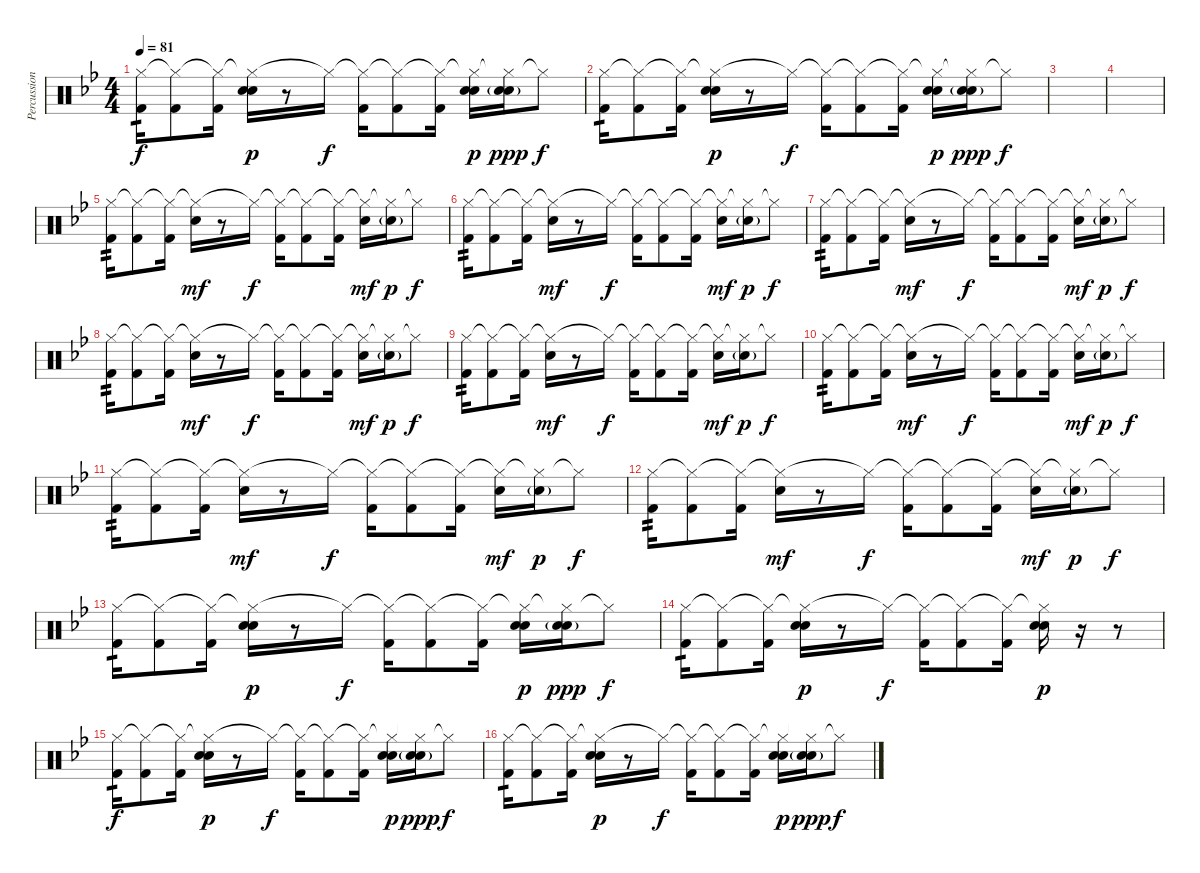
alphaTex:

\track ("Percussion" "Percussion") {instrument percussion}
\staff {score}
\articulation defaults
\ts (4 4)
\tempo 81
\clef neutral
\ks bb
("Hi-Hat (closed)" "Kick (hit) 2").16{tp 1 dy f} ("Hi-Hat (closed)"{t} "Kick (hit) 2").8 ("Hi-Hat (closed)"{t} "Kick (hit) 2").16 ("Hi-Hat (closed)"{t} "Hand Clap (hit)" "Electric Snare (hit)").16{dy p} r.8 "Hi-Hat (closed)"{t}.16{dy f} ("Hi-Hat (closed)"{t} "Kick (hit) 2").16 ("Hi-Hat (closed)"{t} "Kick (hit) 2").8 ("Hi-Hat (closed)"{t} "Kick (hit) 2").16 ("Hi-Hat (closed)"{t} "Hand Clap (hit)" "Electric Snare (hit)").16{dy p} ("Hi-Hat (closed)"{t} "Hand Clap (hit)"{g} "Electric Snare (hit)"{g}).16{dy ppp} "Hi-Hat (closed)"{t}.8{dy f} |
("Hi-Hat (closed)" "Kick (hit) 2").16{tp 1} ("Hi-Hat (closed)"{t} "Kick (hit) 2").8 ("Hi-Hat (closed)"{t} "Kick (hit) 2").16 ("Hi-Hat (closed)"{t} "Hand Clap (hit)" "Electric Snare (hit)").16{dy p} r.8 "Hi-Hat (closed)"{t}.16{dy f} ("Hi-Hat (closed)"{t} "Kick (hit) 2").16 ("Hi-Hat (closed)"{t} "Kick (hit) 2").8 ("Hi-Hat (closed)"{t} "Kick (hit) 2").16 ("Hi-Hat (closed)"{t} "Hand Clap (hit)" "Electric Snare (hit)").16{dy p} ("Hi-Hat (closed)"{t} "Hand Clap (hit)"{g} "Electric Snare (hit)"{g}).16{dy ppp} "Hi-Hat (closed)"{t}.8{dy f} |
|
|
("Hi-Hat (closed)" "Kick (hit) 2").16{tp 2} ("Hi-Hat (closed)"{t} "Kick (hit) 2").8 ("Hi-Hat (closed)"{t} "Kick (hit) 2").16 ("Hi-Hat (closed)"{t} "Snare (hit) 2").16{dy mf} r.8 "Hi-Hat (closed)"{t}.16{dy f} ("Hi-Hat (closed)"{t} "Kick (hit) 2").16 ("Hi-Hat (closed)"{t} "Kick (hit) 2").8 ("Hi-Hat (closed)"{t} "Kick (hit) 2").16 ("Hi-Hat (closed)"{t} "Snare (hit) 2").16{dy mf} ("Hi-Hat (closed)"{t} "Snare (hit) 2"{g}).16{dy p} "Hi-Hat (closed)"{t}.8{dy f} |
("Hi-Hat (closed)" "Kick (hit) 2").16{tp 2} ("Hi-Hat (closed)"{t} "Kick (hit) 2").8 ("Hi-Hat (closed)"{t} "Kick (hit) 2").16 ("Hi-Hat (closed)"{t} "Snare (hit) 2").16{dy mf} r.8 "Hi-Hat (closed)"{t}.16{dy f} ("Hi-Hat (closed)"{t} "Kick (hit) 2").16 ("Hi-Hat (closed)"{t} "Kick (hit) 2").8 ("Hi-Hat (closed)"{t} "Kick (hit) 2").16 ("Hi-Hat (closed)"{t} "Snare (hit) 2").16{dy mf} ("Hi-Hat (closed)"{t} "Snare (hit) 2"{g}).16{dy p} "Hi-Hat (closed)"{t}.8{dy f} |
("Hi-Hat (closed)" "Kick (hit) 2").16{tp 2} ("Hi-Hat (closed)"{t} "Kick (hit) 2").8 ("Hi-Hat (closed)"{t} "Kick (hit) 2").16 ("Hi-Hat (closed)"{t} "Snare (hit) 2").16{dy mf} r.8 "Hi-Hat (closed)"{t}.16{dy f} ("Hi-Hat (closed)"{t} "Kick (hit) 2").16 ("Hi-Hat (closed)"{t} "Kick (hit) 2").8 ("Hi-Hat (closed)"{t} "Kick (hit) 2").16 ("Hi-Hat (closed)"{t} "Snare (hit) 2").16{dy mf} ("Hi-Hat (closed)"{t} "Snare (hit) 2"{g}).16{dy p} "Hi-Hat (closed)"{t}.8{dy f} |
("Hi-Hat (closed)" "Kick (hit) 2").16{tp 2} ("Hi-Hat (closed)"{t} "Kick (hit) 2").8 ("Hi-Hat (closed)"{t} "Kick (hit) 2").16 ("Hi-Hat (closed)"{t} "Snare (hit) 2").16{dy mf} r.8 "Hi-Hat (closed)"{t}.16{dy f} ("Hi-Hat (closed)"{t} "Kick (hit) 2").16 ("Hi-Hat (closed)"{t} "Kick (hit) 2").8 ("Hi-Hat (closed)"{t} "Kick (hit) 2").16 ("Hi-Hat (closed)"{t} "Snare (hit) 2").16{dy mf} ("Hi-Hat (closed)"{t} "Snare (hit) 2"{g}).16{dy p} "Hi-Hat (closed)"{t}.8{dy f} |
("Hi-Hat (closed)" "Kick (hit) 2").16{tp 2} ("Hi-Hat (closed)"{t} "Kick (hit) 2").8 ("Hi-Hat (closed)"{t} "Kick (hit) 2").16 ("Hi-Hat (closed)"{t} "Snare (hit) 2").16{dy mf} r.8 "Hi-Hat (closed)"{t}.16{dy f} ("Hi-Hat (closed)"{t} "Kick (hit) 2").16 ("Hi-Hat (closed)"{t} "Kick (hit) 2").8 ("Hi-Hat (closed)"{t} "Kick (hit) 2").16 ("Hi-Hat (closed)"{t} "Snare (hit) 2").16{dy mf} ("Hi-Hat (closed)"{t} "Snare (hit) 2"{g}).16{dy p} "Hi-Hat (closed)"{t}.8{dy f} |
("Hi-Hat (closed)" "Kick (hit) 2").16{tp 2} ("Hi-Hat (closed)"{t} "Kick (hit) 2").8 ("Hi-Hat (closed)"{t} "Kick (hit) 2").16 ("Hi-Hat (closed)"{t} "Snare (hit) 2").16{dy mf} r.8 "Hi-Hat (closed)"{t}.16{dy f} ("Hi-Hat (closed)"{t} "Kick (hit) 2").16 ("Hi-Hat (closed)"{t} "Kick (hit) 2").8 ("Hi-Hat (closed)"{t} "Kick (hit) 2").16 ("Hi-Hat (closed)"{t} "Snare (hit) 2").16{dy mf} ("Hi-Hat (closed)"{t} "Snare (hit) 2"{g}).16{dy p} "Hi-Hat (closed)"{t}.8{dy f} |
("Hi-Hat (closed)" "Kick (hit) 2").16{tp 2} ("Hi-Hat (closed)"{t} "Kick (hit) 2").8 ("Hi-Hat (closed)"{t} "Kick (hit) 2").16 ("Hi-Hat (closed)"{t} "Snare (hit) 2").16{dy mf} r.8 "Hi-Hat (closed)"{t}.16{dy f} ("Hi-Hat (closed)"{t} "Kick (hit) 2").16 ("Hi-Hat (closed)"{t} "Kick (hit) 2").8 ("Hi-Hat (closed)"{t} "Kick (hit) 2").16 ("Hi-Hat (closed)"{t} "Snare (hit) 2").16{dy mf} ("Hi-Hat (closed)"{t} "Snare (hit) 2"{g}).16{dy p} "Hi-Hat (closed)"{t}.8{dy f} |
("Hi-Hat (closed)" "Kick (hit) 2").16{tp 2} ("Hi-Hat (closed)"{t} "Kick (hit) 2").8 ("Hi-Hat (closed)"{t} "Kick (hit) 2").16 ("Hi-Hat (closed)"{t} "Snare (hit) 2").16{dy mf} r.8 "Hi-Hat (closed)"{t}.16{dy f} ("Hi-Hat (closed)"{t} "Kick (hit) 2").16 ("Hi-Hat (closed)"{t} "Kick (hit) 2").8 ("Hi-Hat (closed)"{t} "Kick (hit) 2").16 ("Hi-Hat (closed)"{t} "Snare (hit) 2").16{dy mf} ("Hi-Hat (closed)"{t} "Snare (hit) 2"{g}).16{dy p} "Hi-Hat (closed)"{t}.8{dy f} |
("Hi-Hat (closed)" "Kick (hit) 2").16{tp 1} ("Hi-Hat (closed)"{t} "Kick (hit) 2").8 ("Hi-Hat (closed)"{t} "Kick (hit) 2").16 ("Hi-Hat (closed)"{t} "Hand Clap (hit)" "Electric Snare (hit)").16{dy p} r.8 "Hi-Hat (closed)"{t}.16{dy f} ("Hi-Hat (closed)"{t} "Kick (hit) 2").16 ("Hi-Hat (closed)"{t} "Kick (hit) 2").8 ("Hi-Hat (closed)"{t} "Kick (hit) 2").16 ("Hi-Hat (closed)"{t} "Hand Clap (hit)" "Electric Snare (hit)").16{dy p} ("Hi-Hat (closed)"{t} "Hand Clap (hit)"{g} "Electric Snare (hit)"{g}).16{dy ppp} "Hi-Hat (closed)"{t}.8{dy f} |
("Hi-Hat (closed)" "Kick (hit) 2").16{tp 1} ("Hi-Hat (closed)"{t} "Kick (hit) 2").8 ("Hi-Hat (closed)"{t} "Kick (hit) 2").16 ("Hi-Hat (closed)"{t} "Hand Clap (hit)" "Electric Snare (hit)").16{dy p} r.8 "Hi-Hat (closed)"{t}.16{dy f} ("Hi-Hat (closed)"{t} "Kick (hit) 2").16 ("Hi-Hat (closed)"{t} "Kick (hit) 2").8 ("Hi-Hat (closed)"{t} "Kick (hit) 2").16 ("Hi-Hat (closed)"{t} "Hand Clap (hit)" "Electric Snare (hit)").16{dy p} r.16 r.8 |
("Hi-Hat (closed)" "Kick (hit) 2").16{tp 1 dy f} ("Hi-Hat (closed)"{t} "Kick (hit) 2").8 ("Hi-Hat (closed)"{t} "Kick (hit) 2").16 ("Hi-Hat (closed)"{t} "Hand Clap (hit)" "Electric Snare (hit)").16{dy p} r.8 "Hi-Hat (closed)"{t}.16{dy f} ("Hi-Hat (closed)"{t} "Kick (hit) 2").16 ("Hi-Hat (closed)"{t} "Kick (hit) 2").8 ("Hi-Hat (closed)"{t} "Kick (hit) 2").16 ("Hi-Hat (closed)"{t} "Hand Clap (hit)" "Electric Snare (hit)").16{dy p} ("Hi-Hat (closed)"{t} "Hand Clap (hit)"{g} "Electric Snare (hit)"{g}).16{dy ppp} "Hi-Hat (closed)"{t}.8{dy f} |
("Hi-Hat (closed)" "Kick (hit) 2").16{tp 1} ("Hi-Hat (closed)"{t} "Kick (hit) 2").8 ("Hi-Hat (closed)"{t} "Kick (hit) 2").16 ("Hi-Hat (closed)"{t} "Hand Clap (hit)" "Electric Snare (hit)").16{dy p} r.8 "Hi-Hat (closed)"{t}.16{dy f} ("Hi-Hat (closed)"{t} "Kick (hit) 2").16 ("Hi-Hat (closed)"{t} "Kick (hit) 2").8 ("Hi-Hat (closed)"{t} "Kick (hit) 2").16 ("Hi-Hat (closed)"{t} "Hand Clap (hit)" "Electric Snare (hit)").16{dy p} ("Hi-Hat (closed)"{t} "Hand Clap (hit)"{g} "Electric Snare (hit)"{g}).16{dy ppp} "Hi-Hat (closed)"{t}.8{dy f}
